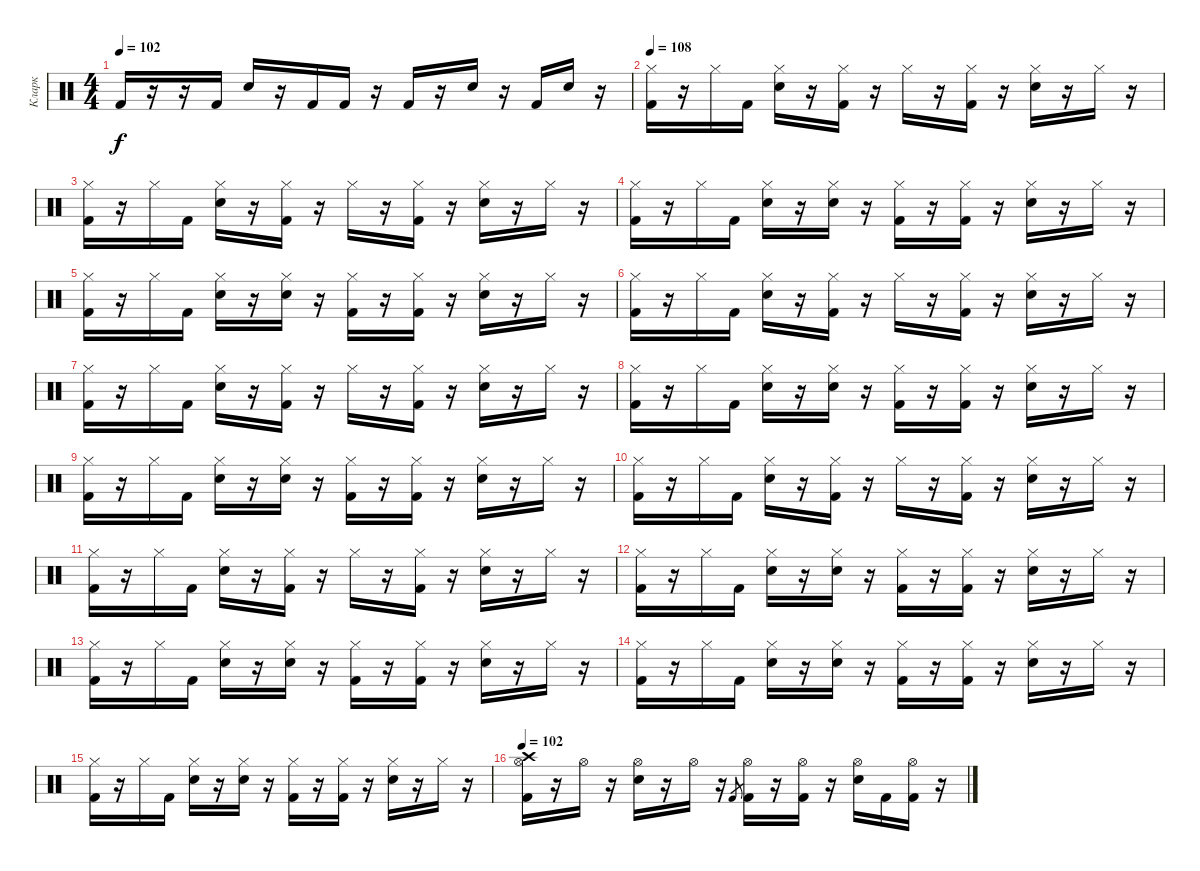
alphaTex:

\track ("Кларк" "Кларк") {instrument percussion}
\staff {score}
\articulation defaults
\ts (4 4)
\tempo 102
\clef neutral
\ks c "Kick (hit) 2".16{dy f}
r.16 r.16 "Kick (hit) 2".16 "Electric Snare (hit)".16 r.16 "Kick (hit) 2".16 "Kick (hit) 2".16 r.16 "Kick (hit) 2".16 r.16 "Electric Snare (hit)".16 r.16 "Kick (hit) 2".16 "Electric Snare (hit)".16 r.16 |
\tempo 108
("Hi-Hat (closed)" "Kick (hit) 2").16 r.16 "Hi-Hat (closed)".16 "Kick (hit) 2".16 ("Hi-Hat (closed)" "Electric Snare (hit)").16 r.16 ("Hi-Hat (closed)" "Kick (hit) 2").16 r.16 "Hi-Hat (closed)".16 r.16 ("Hi-Hat (closed)" "Kick (hit) 2").16 r.16 ("Hi-Hat (closed)" "Electric Snare (hit)").16 r.16 "Hi-Hat (closed)".16 r.16 |
("Hi-Hat (closed)" "Kick (hit) 2").16 r.16 "Hi-Hat (closed)".16 "Kick (hit) 2".16 ("Hi-Hat (closed)" "Electric Snare (hit)").16 r.16 ("Hi-Hat (closed)" "Kick (hit) 2").16 r.16 "Hi-Hat (closed)".16 r.16 ("Hi-Hat (closed)" "Kick (hit) 2").16 r.16 ("Hi-Hat (closed)" "Electric Snare (hit)").16 r.16 "Hi-Hat (closed)".16 r.16 |
("Hi-Hat (closed)" "Kick (hit) 2").16 r.16 "Hi-Hat (closed)".16 "Kick (hit) 2".16 ("Hi-Hat (closed)" "Electric Snare (hit)").16 r.16 ("Hi-Hat (closed)" "Electric Snare (hit)").16 r.16 ("Hi-Hat (closed)" "Kick (hit) 2").16 r.16 ("Hi-Hat (closed)" "Kick (hit) 2").16 r.16 ("Hi-Hat (closed)" "Electric Snare (hit)").16 r.16 "Hi-Hat (closed)".16 r.16 |
("Hi-Hat (closed)" "Kick (hit) 2").16 r.16 "Hi-Hat (closed)".16 "Kick (hit) 2".16 ("Hi-Hat (closed)" "Electric Snare (hit)").16 r.16 ("Hi-Hat (closed)" "Electric Snare (hit)").16 r.16 ("Hi-Hat (closed)" "Kick (hit) 2").16 r.16 ("Hi-Hat (closed)" "Kick (hit) 2").16 r.16 ("Hi-Hat (closed)" "Electric Snare (hit)").16 r.16 "Hi-Hat (closed)".16 r.16 |
("Hi-Hat (closed)" "Kick (hit) 2").16 r.16 "Hi-Hat (closed)".16 "Kick (hit) 2".16 ("Hi-Hat (closed)" "Electric Snare (hit)").16 r.16 ("Hi-Hat (closed)" "Kick (hit) 2").16 r.16 "Hi-Hat (closed)".16 r.16 ("Hi-Hat (closed)" "Kick (hit) 2").16 r.16 ("Hi-Hat (closed)" "Electric Snare (hit)").16 r.16 "Hi-Hat (closed)".16 r.16 |
("Hi-Hat (closed)" "Kick (hit) 2").16 r.16 "Hi-Hat (closed)".16 "Kick (hit) 2".16 ("Hi-Hat (closed)" "Electric Snare (hit)").16 r.16 ("Hi-Hat (closed)" "Kick (hit) 2").16 r.16 "Hi-Hat (closed)".16 r.16 ("Hi-Hat (closed)" "Kick (hit) 2").16 r.16 ("Hi-Hat (closed)" "Electric Snare (hit)").16 r.16 "Hi-Hat (closed)".16 r.16 |
("Hi-Hat (closed)" "Kick (hit) 2").16 r.16 "Hi-Hat (closed)".16 "Kick (hit) 2".16 ("Hi-Hat (closed)" "Electric Snare (hit)").16 r.16 ("Hi-Hat (closed)" "Electric Snare (hit)").16 r.16 ("Hi-Hat (closed)" "Kick (hit) 2").16 r.16 ("Hi-Hat (closed)" "Kick (hit) 2").16 r.16 ("Hi-Hat (closed)" "Electric Snare (hit)").16 r.16 "Hi-Hat (closed)".16 r.16 |
("Hi-Hat (closed)" "Kick (hit) 2").16 r.16 "Hi-Hat (closed)".16 "Kick (hit) 2".16 ("Hi-Hat (closed)" "Electric Snare (hit)").16 r.16 ("Hi-Hat (closed)" "Electric Snare (hit)").16 r.16 ("Hi-Hat (closed)" "Kick (hit) 2").16 r.16 ("Hi-Hat (closed)" "Kick (hit) 2").16 r.16 ("Hi-Hat (closed)" "Electric Snare (hit)").16 r.16 "Hi-Hat (closed)".16 r.16 |
("Hi-Hat (closed)" "Kick (hit) 2").16 r.16 "Hi-Hat (closed)".16 "Kick (hit) 2".16 ("Hi-Hat (closed)" "Electric Snare (hit)").16 r.16 ("Hi-Hat (closed)" "Kick (hit) 2").16 r.16 "Hi-Hat (closed)".16 r.16 ("Hi-Hat (closed)" "Kick (hit) 2").16 r.16 ("Hi-Hat (closed)" "Electric Snare (hit)").16 r.16 "Hi-Hat (closed)".16 r.16 |
("Hi-Hat (closed)" "Kick (hit) 2").16 r.16 "Hi-Hat (closed)".16 "Kick (hit) 2".16 ("Hi-Hat (closed)" "Electric Snare (hit)").16 r.16 ("Hi-Hat (closed)" "Kick (hit) 2").16 r.16 "Hi-Hat (closed)".16 r.16 ("Hi-Hat (closed)" "Kick (hit) 2").16 r.16 ("Hi-Hat (closed)" "Electric Snare (hit)").16 r.16 "Hi-Hat (closed)".16 r.16 |
("Hi-Hat (closed)" "Kick (hit) 2").16 r.16 "Hi-Hat (closed)".16 "Kick (hit) 2".16 ("Hi-Hat (closed)" "Electric Snare (hit)").16 r.16 ("Hi-Hat (closed)" "Electric Snare (hit)").16 r.16 ("Hi-Hat (closed)" "Kick (hit) 2").16 r.16 ("Hi-Hat (closed)" "Kick (hit) 2").16 r.16 ("Hi-Hat (closed)" "Electric Snare (hit)").16 r.16 "Hi-Hat (closed)".16 r.16 |
("Hi-Hat (closed)" "Kick (hit) 2").16 r.16 "Hi-Hat (closed)".16 "Kick (hit) 2".16 ("Hi-Hat (closed)" "Electric Snare (hit)").16 r.16 ("Hi-Hat (closed)" "Electric Snare (hit)").16 r.16 ("Hi-Hat (closed)" "Kick (hit) 2").16 r.16 ("Hi-Hat (closed)" "Kick (hit) 2").16 r.16 ("Hi-Hat (closed)" "Electric Snare (hit)").16 r.16 "Hi-Hat (closed)".16 r.16 |
("Hi-Hat (closed)" "Kick (hit) 2").16 r.16 "Hi-Hat (closed)".16 "Kick (hit) 2".16 ("Hi-Hat (closed)" "Electric Snare (hit)").16 r.16 ("Hi-Hat (closed)" "Electric Snare (hit)").16 r.16 ("Hi-Hat (closed)" "Kick (hit) 2").16 r.16 ("Hi-Hat (closed)" "Kick (hit) 2").16 r.16 ("Hi-Hat (closed)" "Electric Snare (hit)").16 r.16 "Hi-Hat (closed)".16 r.16 |
("Hi-Hat (closed)" "Kick (hit) 2").16 r.16 "Hi-Hat (closed)".16 "Kick (hit) 2".16 ("Hi-Hat (closed)" "Electric Snare (hit)").16 r.16 ("Hi-Hat (closed)" "Electric Snare (hit)").16 r.16 ("Hi-Hat (closed)" "Kick (hit) 2").16 r.16 ("Hi-Hat (closed)" "Kick (hit) 2").16 r.16 ("Hi-Hat (closed)" "Electric Snare (hit)").16 r.16 "Hi-Hat (closed)".16 r.16 |
\tempo 102
("Hi-Hat (open)" "Crash high (hit)" "Kick (hit) 2").16 r.16 "Hi-Hat (open)".16 r.16 ("Hi-Hat (open)" "Electric Snare (hit)").16 r.16 "Hi-Hat (open)".16 r.16 "Kick (hit) 2".8{gr} ("Hi-Hat (open)" "Kick (hit) 2").16 r.16 ("Hi-Hat (open)" "Kick (hit) 2").16 r.16 ("Hi-Hat (open)" "Electric Snare (hit)").16 "Kick (hit) 2".16 ("Hi-Hat (open)" "Kick (hit) 2").16 r.16
